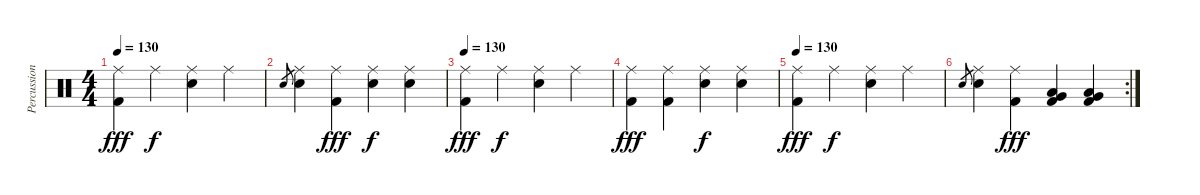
\track ("Percussion" "Percussion") {instrument percussion}
\staff {score}
\articulation defaults
\ts (4 4)
\tempo 130
\clef neutral
\ks c
("Ride (middle)" "Kick (hit) 2").4{dy fff} "Ride (middle)".4{dy f} ("Ride (middle)" "Snare (hit) 2").4 "Ride (middle)".4 |
"Snare (hit) 2".8{gr} ("Ride (middle)" "Snare (hit) 2").4 ("Ride (middle)" "Kick (hit) 2").4{dy fff} ("Ride (middle)" "Snare (hit) 2").4{dy f} ("Ride (middle)" "Snare (hit) 2").4 |
\tempo 130
("Ride (middle)" "Kick (hit) 2").4{dy fff} "Ride (middle)".4{dy f} ("Ride (middle)" "Snare (hit) 2").4 "Ride (middle)".4 |
("Ride (middle)" "Kick (hit) 2").4{dy fff} ("Ride (middle)" "Kick (hit) 2").4 ("Ride (middle)" "Snare (hit) 2").4{dy f} ("Ride (middle)" "Snare (hit) 2").4 |
\tempo 130
("Ride (middle)" "Kick (hit) 2").4{dy fff} "Ride (middle)".4{dy f} ("Ride (middle)" "Snare (hit) 2").4 "Ride (middle)".4 |
\rc 2 "Snare (hit) 2".8{gr}
("Ride (middle)" "Snare (hit) 2").4 ("Ride (middle)" "Kick (hit) 2").4{dy fff} ("Low Tom (hit)" "Very Low Tom (hit)" "Kick (hit) 2").4 ("Low Tom (hit)" "Very Low Tom (hit)" "Kick (hit) 2").4
